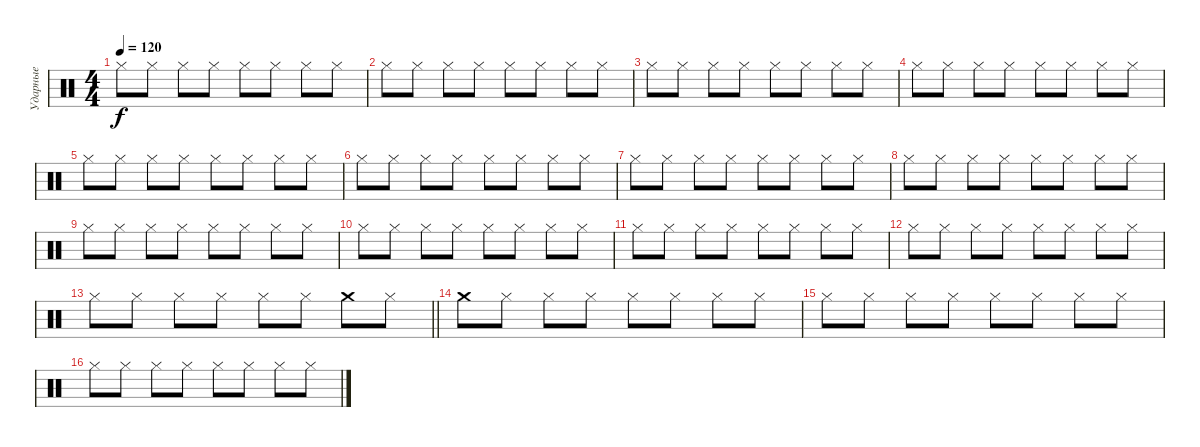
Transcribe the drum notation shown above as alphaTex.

\track ("Ударные" "Ударные") {instrument percussion}
\staff {score}
\articulation defaults
\ts (4 4)
\tempo 120
\clef neutral
\ks c "Hi-Hat (closed)".8{dy f} "Hi-Hat (closed)".8 "Hi-Hat (closed)".8 "Hi-Hat (closed)".8 "Hi-Hat (closed)".8 "Hi-Hat (closed)".8 "Hi-Hat (closed)".8 "Hi-Hat (closed)".8
|
"Hi-Hat (closed)".8 "Hi-Hat (closed)".8 "Hi-Hat (closed)".8 "Hi-Hat (closed)".8 "Hi-Hat (closed)".8 "Hi-Hat (closed)".8 "Hi-Hat (closed)".8 "Hi-Hat (closed)".8 |
"Hi-Hat (closed)".8 "Hi-Hat (closed)".8 "Hi-Hat (closed)".8 "Hi-Hat (closed)".8 "Hi-Hat (closed)".8 "Hi-Hat (closed)".8 "Hi-Hat (closed)".8 "Hi-Hat (closed)".8 |
"Hi-Hat (closed)".8 "Hi-Hat (closed)".8 "Hi-Hat (closed)".8 "Hi-Hat (closed)".8 "Hi-Hat (closed)".8 "Hi-Hat (closed)".8 "Hi-Hat (closed)".8 "Hi-Hat (closed)".8 |
"Hi-Hat (closed)".8 "Hi-Hat (closed)".8 "Hi-Hat (closed)".8 "Hi-Hat (closed)".8 "Hi-Hat (closed)".8 "Hi-Hat (closed)".8 "Hi-Hat (closed)".8 "Hi-Hat (closed)".8 |
"Hi-Hat (closed)".8 "Hi-Hat (closed)".8 "Hi-Hat (closed)".8 "Hi-Hat (closed)".8 "Hi-Hat (closed)".8 "Hi-Hat (closed)".8 "Hi-Hat (closed)".8 "Hi-Hat (closed)".8 |
"Hi-Hat (closed)".8 "Hi-Hat (closed)".8 "Hi-Hat (closed)".8 "Hi-Hat (closed)".8 "Hi-Hat (closed)".8 "Hi-Hat (closed)".8 "Hi-Hat (closed)".8 "Hi-Hat (closed)".8 |
"Hi-Hat (closed)".8 "Hi-Hat (closed)".8 "Hi-Hat (closed)".8 "Hi-Hat (closed)".8 "Hi-Hat (closed)".8 "Hi-Hat (closed)".8 "Hi-Hat (closed)".8 "Hi-Hat (closed)".8 |
"Hi-Hat (closed)".8 "Hi-Hat (closed)".8 "Hi-Hat (closed)".8 "Hi-Hat (closed)".8 "Hi-Hat (closed)".8 "Hi-Hat (closed)".8 "Hi-Hat (closed)".8 "Hi-Hat (closed)".8 |
"Hi-Hat (closed)".8 "Hi-Hat (closed)".8 "Hi-Hat (closed)".8 "Hi-Hat (closed)".8 "Hi-Hat (closed)".8 "Hi-Hat (closed)".8 "Hi-Hat (closed)".8 "Hi-Hat (closed)".8 |
"Hi-Hat (closed)".8 "Hi-Hat (closed)".8 "Hi-Hat (closed)".8 "Hi-Hat (closed)".8 "Hi-Hat (closed)".8 "Hi-Hat (closed)".8 "Hi-Hat (closed)".8 "Hi-Hat (closed)".8 |
"Hi-Hat (closed)".8 "Hi-Hat (closed)".8 "Hi-Hat (closed)".8 "Hi-Hat (closed)".8 "Hi-Hat (closed)".8 "Hi-Hat (closed)".8 "Hi-Hat (closed)".8 "Hi-Hat (closed)".8 |
\barLineRight lightlight "Hi-Hat (closed)".8 "Hi-Hat (closed)".8 "Hi-Hat (closed)".8 "Hi-Hat (closed)".8 "Hi-Hat (closed)".8 "Hi-Hat (closed)".8 "Crash medium (hit)".8 "Hi-Hat (closed)".8
|
"Crash medium (hit)".8 "Hi-Hat (closed)".8 "Hi-Hat (closed)".8 "Hi-Hat (closed)".8 "Hi-Hat (closed)".8 "Hi-Hat (closed)".8 "Hi-Hat (closed)".8 "Hi-Hat (closed)".8 |
"Hi-Hat (closed)".8 "Hi-Hat (closed)".8 "Hi-Hat (closed)".8 "Hi-Hat (closed)".8 "Hi-Hat (closed)".8 "Hi-Hat (closed)".8 "Hi-Hat (closed)".8 "Hi-Hat (closed)".8 |
"Hi-Hat (closed)".8 "Hi-Hat (closed)".8 "Hi-Hat (closed)".8 "Hi-Hat (closed)".8 "Hi-Hat (closed)".8 "Hi-Hat (closed)".8 "Hi-Hat (closed)".8 "Hi-Hat (closed)".8
